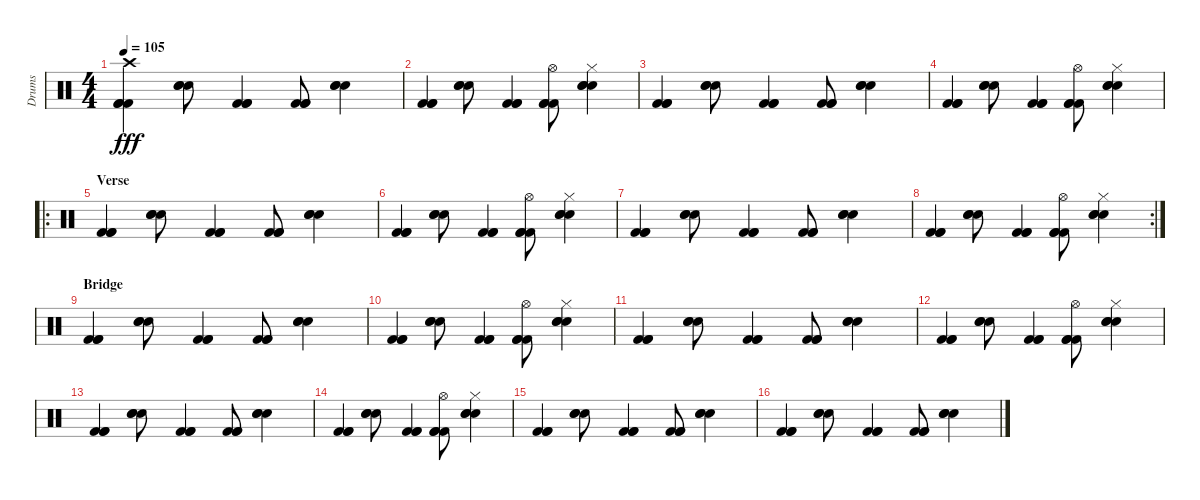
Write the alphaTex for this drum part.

\track ("Drums" "Drums") {instrument percussion}
\staff {score}
\articulation defaults
\ts (4 4)
\tempo 105
\clef neutral
\ks c
("Kick (hit) 2" "Kick (hit) 2" "Kick (hit) 2" "Crash high (hit)").4{dy fff} ("Electric Snare (hit)" "Electric Snare (hit)" "Electric Snare (hit)").8 ("Kick (hit) 2" "Kick (hit) 2" "Kick (hit) 2").4 ("Kick (hit) 2" "Kick (hit) 2" "Kick (hit) 2").8 ("Electric Snare (hit)" "Electric Snare (hit)" "Electric Snare (hit)").4 |
("Kick (hit) 2" "Kick (hit) 2" "Kick (hit) 2").4 ("Electric Snare (hit)" "Electric Snare (hit)" "Electric Snare (hit)").8 ("Kick (hit) 2" "Kick (hit) 2" "Kick (hit) 2").4 ("Kick (hit) 2" "Kick (hit) 2" "Kick (hit) 2" "Hi-Hat (open)").8 ("Electric Snare (hit)" "Electric Snare (hit)" "Electric Snare (hit)" "Hi-Hat (closed)").4 |
("Kick (hit) 2" "Kick (hit) 2" "Kick (hit) 2").4 ("Electric Snare (hit)" "Electric Snare (hit)" "Electric Snare (hit)").8 ("Kick (hit) 2" "Kick (hit) 2" "Kick (hit) 2").4 ("Kick (hit) 2" "Kick (hit) 2" "Kick (hit) 2").8 ("Electric Snare (hit)" "Electric Snare (hit)" "Electric Snare (hit)").4 |
("Kick (hit) 2" "Kick (hit) 2" "Kick (hit) 2").4 ("Electric Snare (hit)" "Electric Snare (hit)" "Electric Snare (hit)").8 ("Kick (hit) 2" "Kick (hit) 2" "Kick (hit) 2").4 ("Kick (hit) 2" "Kick (hit) 2" "Kick (hit) 2" "Hi-Hat (open)").8 ("Electric Snare (hit)" "Electric Snare (hit)" "Electric Snare (hit)" "Hi-Hat (closed)").4 |
\ro
\section ("" "Verse")
("Kick (hit) 2" "Kick (hit) 2" "Kick (hit) 2").4 ("Electric Snare (hit)" "Electric Snare (hit)" "Electric Snare (hit)").8 ("Kick (hit) 2" "Kick (hit) 2" "Kick (hit) 2").4 ("Kick (hit) 2" "Kick (hit) 2" "Kick (hit) 2").8 ("Electric Snare (hit)" "Electric Snare (hit)" "Electric Snare (hit)").4 |
("Kick (hit) 2" "Kick (hit) 2" "Kick (hit) 2").4 ("Electric Snare (hit)" "Electric Snare (hit)" "Electric Snare (hit)").8 ("Kick (hit) 2" "Kick (hit) 2" "Kick (hit) 2").4 ("Kick (hit) 2" "Kick (hit) 2" "Kick (hit) 2" "Hi-Hat (open)").8 ("Electric Snare (hit)" "Electric Snare (hit)" "Electric Snare (hit)" "Hi-Hat (closed)").4 |
("Kick (hit) 2" "Kick (hit) 2" "Kick (hit) 2").4 ("Electric Snare (hit)" "Electric Snare (hit)" "Electric Snare (hit)").8 ("Kick (hit) 2" "Kick (hit) 2" "Kick (hit) 2").4 ("Kick (hit) 2" "Kick (hit) 2" "Kick (hit) 2").8 ("Electric Snare (hit)" "Electric Snare (hit)" "Electric Snare (hit)").4 |
\rc 2
("Kick (hit) 2" "Kick (hit) 2" "Kick (hit) 2").4 ("Electric Snare (hit)" "Electric Snare (hit)" "Electric Snare (hit)").8 ("Kick (hit) 2" "Kick (hit) 2" "Kick (hit) 2").4 ("Kick (hit) 2" "Kick (hit) 2" "Kick (hit) 2" "Hi-Hat (open)").8 ("Electric Snare (hit)" "Electric Snare (hit)" "Electric Snare (hit)" "Hi-Hat (closed)").4 |
\section ("" "Bridge")
("Kick (hit) 2" "Kick (hit) 2" "Kick (hit) 2").4 ("Electric Snare (hit)" "Electric Snare (hit)" "Electric Snare (hit)").8 ("Kick (hit) 2" "Kick (hit) 2" "Kick (hit) 2").4 ("Kick (hit) 2" "Kick (hit) 2" "Kick (hit) 2").8 ("Electric Snare (hit)" "Electric Snare (hit)" "Electric Snare (hit)").4 |
("Kick (hit) 2" "Kick (hit) 2" "Kick (hit) 2").4 ("Electric Snare (hit)" "Electric Snare (hit)" "Electric Snare (hit)").8 ("Kick (hit) 2" "Kick (hit) 2" "Kick (hit) 2").4 ("Kick (hit) 2" "Kick (hit) 2" "Kick (hit) 2" "Hi-Hat (open)").8 ("Electric Snare (hit)" "Electric Snare (hit)" "Electric Snare (hit)" "Hi-Hat (closed)").4 |
("Kick (hit) 2" "Kick (hit) 2" "Kick (hit) 2").4 ("Electric Snare (hit)" "Electric Snare (hit)" "Electric Snare (hit)").8 ("Kick (hit) 2" "Kick (hit) 2" "Kick (hit) 2").4 ("Kick (hit) 2" "Kick (hit) 2" "Kick (hit) 2").8 ("Electric Snare (hit)" "Electric Snare (hit)" "Electric Snare (hit)").4 |
("Kick (hit) 2" "Kick (hit) 2" "Kick (hit) 2").4 ("Electric Snare (hit)" "Electric Snare (hit)" "Electric Snare (hit)").8 ("Kick (hit) 2" "Kick (hit) 2" "Kick (hit) 2").4 ("Kick (hit) 2" "Kick (hit) 2" "Kick (hit) 2" "Hi-Hat (open)").8 ("Electric Snare (hit)" "Electric Snare (hit)" "Electric Snare (hit)" "Hi-Hat (closed)").4 |
("Kick (hit) 2" "Kick (hit) 2" "Kick (hit) 2").4 ("Electric Snare (hit)" "Electric Snare (hit)" "Electric Snare (hit)").8 ("Kick (hit) 2" "Kick (hit) 2" "Kick (hit) 2").4 ("Kick (hit) 2" "Kick (hit) 2" "Kick (hit) 2").8 ("Electric Snare (hit)" "Electric Snare (hit)" "Electric Snare (hit)").4 |
("Kick (hit) 2" "Kick (hit) 2" "Kick (hit) 2").4 ("Electric Snare (hit)" "Electric Snare (hit)" "Electric Snare (hit)").8 ("Kick (hit) 2" "Kick (hit) 2" "Kick (hit) 2").4 ("Kick (hit) 2" "Kick (hit) 2" "Kick (hit) 2" "Hi-Hat (open)").8 ("Electric Snare (hit)" "Electric Snare (hit)" "Electric Snare (hit)" "Hi-Hat (closed)").4 |
("Kick (hit) 2" "Kick (hit) 2" "Kick (hit) 2").4 ("Electric Snare (hit)" "Electric Snare (hit)" "Electric Snare (hit)").8 ("Kick (hit) 2" "Kick (hit) 2" "Kick (hit) 2").4 ("Kick (hit) 2" "Kick (hit) 2" "Kick (hit) 2").8 ("Electric Snare (hit)" "Electric Snare (hit)" "Electric Snare (hit)").4 |
("Kick (hit) 2" "Kick (hit) 2" "Kick (hit) 2").4 ("Electric Snare (hit)" "Electric Snare (hit)" "Electric Snare (hit)").8 ("Kick (hit) 2" "Kick (hit) 2" "Kick (hit) 2").4 ("Kick (hit) 2" "Kick (hit) 2" "Kick (hit) 2").8 ("Electric Snare (hit)" "Electric Snare (hit)" "Electric Snare (hit)").4
